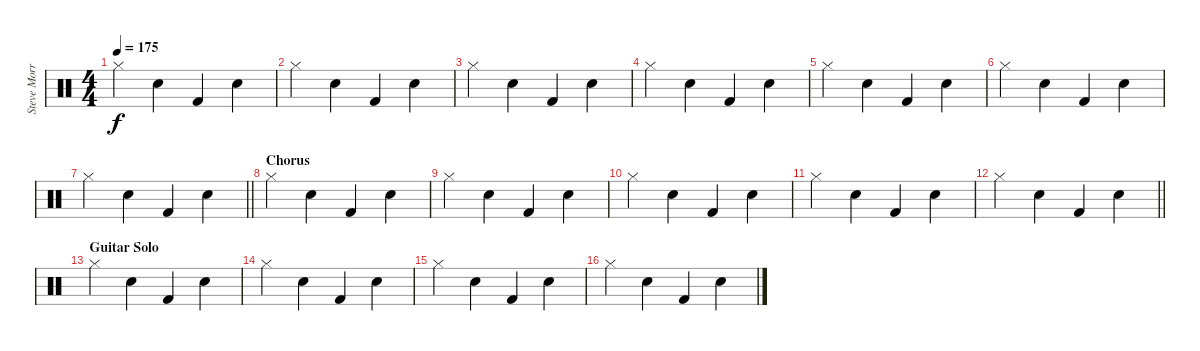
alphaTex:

\track ("Steve Morris" "Steve Morr") {instrument percussion}
\staff {score}
\articulation defaults
\ts (4 4)
\tempo 175
\clef neutral
\ks c "Hi-Hat (closed)".4{dy f} "Snare (hit) 2".4 "Kick (hit) 2".4 "Snare (hit) 2".4
|
"Hi-Hat (closed)".4 "Snare (hit) 2".4 "Kick (hit) 2".4 "Snare (hit) 2".4 |
"Hi-Hat (closed)".4 "Snare (hit) 2".4 "Kick (hit) 2".4 "Snare (hit) 2".4 |
"Hi-Hat (closed)".4 "Snare (hit) 2".4 "Kick (hit) 2".4 "Snare (hit) 2".4 |
"Hi-Hat (closed)".4 "Snare (hit) 2".4 "Kick (hit) 2".4 "Snare (hit) 2".4 |
"Hi-Hat (closed)".4 "Snare (hit) 2".4 "Kick (hit) 2".4 "Snare (hit) 2".4 |
\barLineRight lightlight "Hi-Hat (closed)".4 "Snare (hit) 2".4 "Kick (hit) 2".4 "Snare (hit) 2".4
|
\section ("" "Chorus")
"Hi-Hat (closed)".4 "Snare (hit) 2".4 "Kick (hit) 2".4 "Snare (hit) 2".4 |
"Hi-Hat (closed)".4 "Snare (hit) 2".4 "Kick (hit) 2".4 "Snare (hit) 2".4 |
"Hi-Hat (closed)".4 "Snare (hit) 2".4 "Kick (hit) 2".4 "Snare (hit) 2".4 |
"Hi-Hat (closed)".4 "Snare (hit) 2".4 "Kick (hit) 2".4 "Snare (hit) 2".4 |
\barLineRight lightlight "Hi-Hat (closed)".4 "Snare (hit) 2".4 "Kick (hit) 2".4 "Snare (hit) 2".4
|
\section ("" "Guitar Solo")
"Hi-Hat (closed)".4 "Snare (hit) 2".4 "Kick (hit) 2".4 "Snare (hit) 2".4 |
"Hi-Hat (closed)".4 "Snare (hit) 2".4 "Kick (hit) 2".4 "Snare (hit) 2".4 |
"Hi-Hat (closed)".4 "Snare (hit) 2".4 "Kick (hit) 2".4 "Snare (hit) 2".4 |
"Hi-Hat (closed)".4 "Snare (hit) 2".4 "Kick (hit) 2".4 "Snare (hit) 2".4
